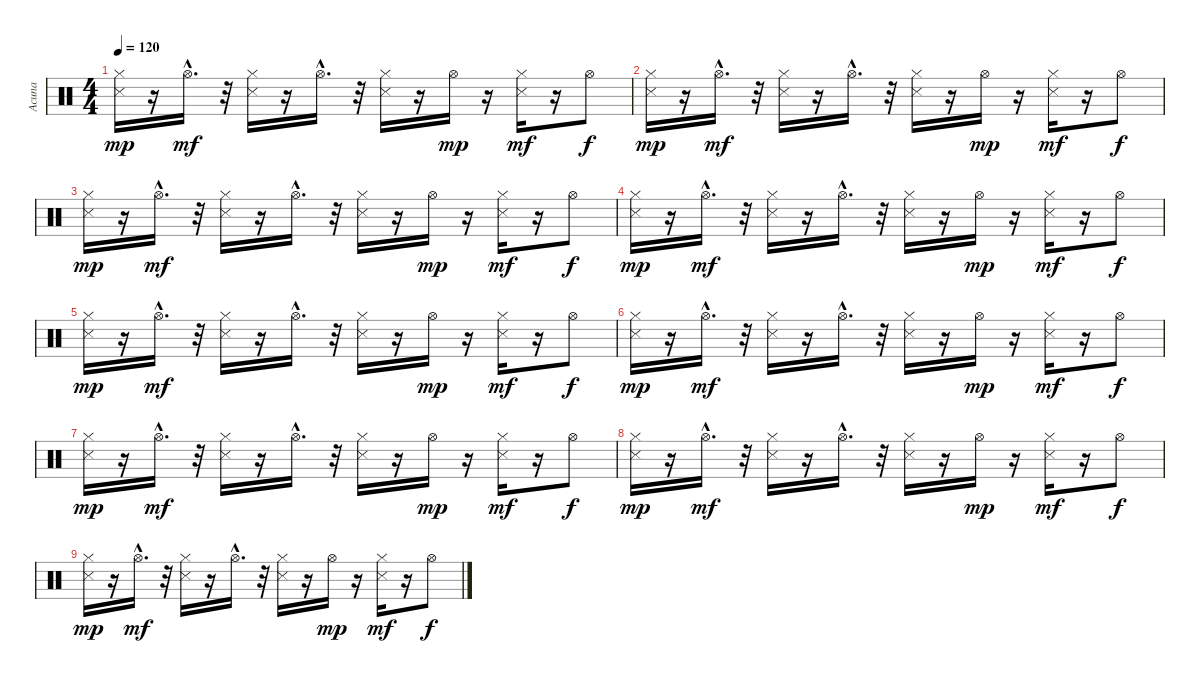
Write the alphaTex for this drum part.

\track ("Acuna" "Acuna") {instrument percussion}
\staff {score}
\articulation defaults
\ts (4 4)
\tempo 120
\clef neutral
\ks c
("Snare (side stick) 3" "Hi-Hat (closed)").16{dy mp} r.16 "Hi-Hat (open)"{hac}.16{d dy mf} r.32 ("Snare (side stick) 3" "Hi-Hat (closed)").16 r.16 "Hi-Hat (open)"{hac}.16{d} r.32 ("Snare (side stick) 3" "Hi-Hat (closed)").16 r.16 "Hi-Hat (open)".16{dy mp} r.16 ("Snare (side stick) 3" "Hi-Hat (closed)").16{dy mf} r.16 "Hi-Hat (open)".8{dy f} |
("Snare (side stick) 3" "Hi-Hat (closed)").16{dy mp} r.16 "Hi-Hat (open)"{hac}.16{d dy mf} r.32 ("Snare (side stick) 3" "Hi-Hat (closed)").16 r.16 "Hi-Hat (open)"{hac}.16{d} r.32 ("Snare (side stick) 3" "Hi-Hat (closed)").16 r.16 "Hi-Hat (open)".16{dy mp} r.16 ("Snare (side stick) 3" "Hi-Hat (closed)").16{dy mf} r.16 "Hi-Hat (open)".8{dy f} |
("Snare (side stick) 3" "Hi-Hat (closed)").16{dy mp} r.16 "Hi-Hat (open)"{hac}.16{d dy mf} r.32 ("Snare (side stick) 3" "Hi-Hat (closed)").16 r.16 "Hi-Hat (open)"{hac}.16{d} r.32 ("Snare (side stick) 3" "Hi-Hat (closed)").16 r.16 "Hi-Hat (open)".16{dy mp} r.16 ("Snare (side stick) 3" "Hi-Hat (closed)").16{dy mf} r.16 "Hi-Hat (open)".8{dy f} |
("Snare (side stick) 3" "Hi-Hat (closed)").16{dy mp} r.16 "Hi-Hat (open)"{hac}.16{d dy mf} r.32 ("Snare (side stick) 3" "Hi-Hat (closed)").16 r.16 "Hi-Hat (open)"{hac}.16{d} r.32 ("Snare (side stick) 3" "Hi-Hat (closed)").16 r.16 "Hi-Hat (open)".16{dy mp} r.16 ("Snare (side stick) 3" "Hi-Hat (closed)").16{dy mf} r.16 "Hi-Hat (open)".8{dy f} |
("Snare (side stick) 3" "Hi-Hat (closed)").16{dy mp} r.16 "Hi-Hat (open)"{hac}.16{d dy mf} r.32 ("Snare (side stick) 3" "Hi-Hat (closed)").16 r.16 "Hi-Hat (open)"{hac}.16{d} r.32 ("Snare (side stick) 3" "Hi-Hat (closed)").16 r.16 "Hi-Hat (open)".16{dy mp} r.16 ("Snare (side stick) 3" "Hi-Hat (closed)").16{dy mf} r.16 "Hi-Hat (open)".8{dy f} |
("Snare (side stick) 3" "Hi-Hat (closed)").16{dy mp} r.16 "Hi-Hat (open)"{hac}.16{d dy mf} r.32 ("Snare (side stick) 3" "Hi-Hat (closed)").16 r.16 "Hi-Hat (open)"{hac}.16{d} r.32 ("Snare (side stick) 3" "Hi-Hat (closed)").16 r.16 "Hi-Hat (open)".16{dy mp} r.16 ("Snare (side stick) 3" "Hi-Hat (closed)").16{dy mf} r.16 "Hi-Hat (open)".8{dy f} |
("Snare (side stick) 3" "Hi-Hat (closed)").16{dy mp} r.16 "Hi-Hat (open)"{hac}.16{d dy mf} r.32 ("Snare (side stick) 3" "Hi-Hat (closed)").16 r.16 "Hi-Hat (open)"{hac}.16{d} r.32 ("Snare (side stick) 3" "Hi-Hat (closed)").16 r.16 "Hi-Hat (open)".16{dy mp} r.16 ("Snare (side stick) 3" "Hi-Hat (closed)").16{dy mf} r.16 "Hi-Hat (open)".8{dy f} |
("Snare (side stick) 3" "Hi-Hat (closed)").16{dy mp} r.16 "Hi-Hat (open)"{hac}.16{d dy mf} r.32 ("Snare (side stick) 3" "Hi-Hat (closed)").16 r.16 "Hi-Hat (open)"{hac}.16{d} r.32 ("Snare (side stick) 3" "Hi-Hat (closed)").16 r.16 "Hi-Hat (open)".16{dy mp} r.16 ("Snare (side stick) 3" "Hi-Hat (closed)").16{dy mf} r.16 "Hi-Hat (open)".8{dy f} |
("Snare (side stick) 3" "Hi-Hat (closed)").16{dy mp} r.16 "Hi-Hat (open)"{hac}.16{d dy mf} r.32 ("Snare (side stick) 3" "Hi-Hat (closed)").16 r.16 "Hi-Hat (open)"{hac}.16{d} r.32 ("Snare (side stick) 3" "Hi-Hat (closed)").16 r.16 "Hi-Hat (open)".16{dy mp} r.16 ("Snare (side stick) 3" "Hi-Hat (closed)").16{dy mf} r.16 "Hi-Hat (open)".8{dy f}
